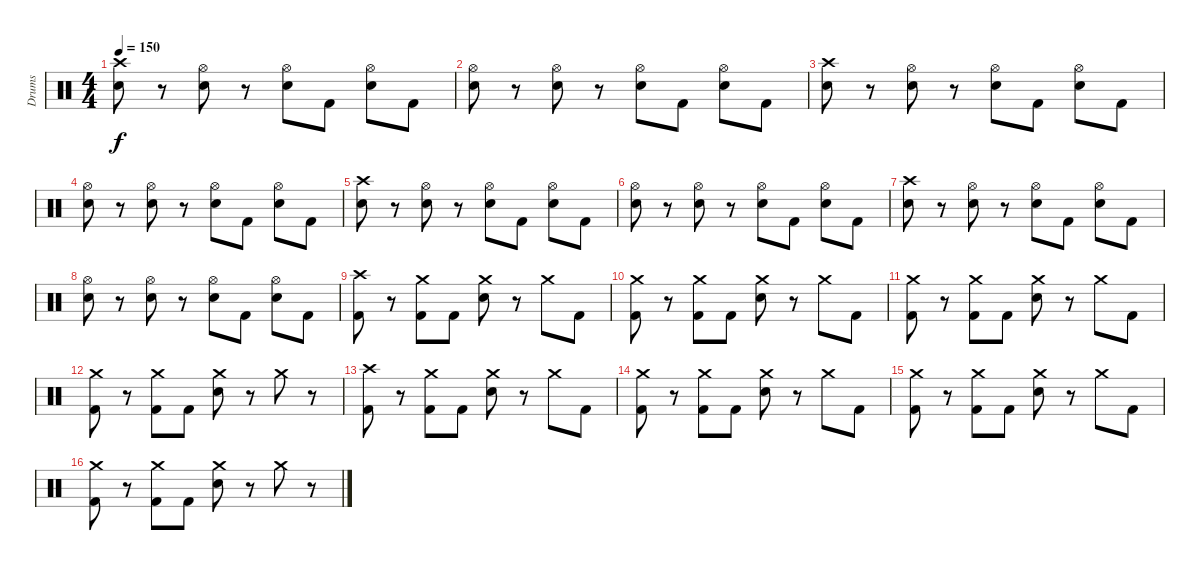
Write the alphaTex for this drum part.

\track ("Drums" "Drums") {instrument percussion}
\staff {score}
\articulation defaults
\ts (4 4)
\tempo 150
\clef neutral
\ks c
("Crash high (hit)" "Snare (hit) 2").8{dy f} r.8 ("Hi-Hat (open)" "Snare (hit) 2").8 r.8 ("Hi-Hat (open)" "Snare (hit) 2").8 "Kick (hit) 2".8 ("Hi-Hat (open)" "Snare (hit) 2").8 "Kick (hit) 2".8 |
("Hi-Hat (open)" "Snare (hit) 2").8 r.8 ("Hi-Hat (open)" "Snare (hit) 2").8 r.8 ("Hi-Hat (open)" "Snare (hit) 2").8 "Kick (hit) 2".8 ("Hi-Hat (open)" "Snare (hit) 2").8 "Kick (hit) 2".8 |
("Crash high (hit)" "Snare (hit) 2").8 r.8 ("Hi-Hat (open)" "Snare (hit) 2").8 r.8 ("Hi-Hat (open)" "Snare (hit) 2").8 "Kick (hit) 2".8 ("Hi-Hat (open)" "Snare (hit) 2").8 "Kick (hit) 2".8 |
("Hi-Hat (open)" "Snare (hit) 2").8 r.8 ("Hi-Hat (open)" "Snare (hit) 2").8 r.8 ("Hi-Hat (open)" "Snare (hit) 2").8 "Kick (hit) 2".8 ("Hi-Hat (open)" "Snare (hit) 2").8 "Kick (hit) 2".8 |
("Crash high (hit)" "Snare (hit) 2").8 r.8 ("Hi-Hat (open)" "Snare (hit) 2").8 r.8 ("Hi-Hat (open)" "Snare (hit) 2").8 "Kick (hit) 2".8 ("Hi-Hat (open)" "Snare (hit) 2").8 "Kick (hit) 2".8 |
("Hi-Hat (open)" "Snare (hit) 2").8 r.8 ("Hi-Hat (open)" "Snare (hit) 2").8 r.8 ("Hi-Hat (open)" "Snare (hit) 2").8 "Kick (hit) 2".8 ("Hi-Hat (open)" "Snare (hit) 2").8 "Kick (hit) 2".8 |
("Crash high (hit)" "Snare (hit) 2").8 r.8 ("Hi-Hat (open)" "Snare (hit) 2").8 r.8 ("Hi-Hat (open)" "Snare (hit) 2").8 "Kick (hit) 2".8 ("Hi-Hat (open)" "Snare (hit) 2").8 "Kick (hit) 2".8 |
("Hi-Hat (open)" "Snare (hit) 2").8 r.8 ("Hi-Hat (open)" "Snare (hit) 2").8 r.8 ("Hi-Hat (open)" "Snare (hit) 2").8 "Kick (hit) 2".8 ("Hi-Hat (open)" "Snare (hit) 2").8 "Kick (hit) 2".8 |
("Crash high (hit)" "Kick (hit) 2").8 r.8 ("Crash medium (hit)" "Kick (hit) 2").8 "Kick (hit) 2".8 ("Crash medium (hit)" "Snare (hit) 2").8 r.8 "Crash medium (hit)".8 "Kick (hit) 2".8 |
("Crash medium (hit)" "Kick (hit) 2").8 r.8 ("Crash medium (hit)" "Kick (hit) 2").8 "Kick (hit) 2".8 ("Crash medium (hit)" "Snare (hit) 2").8 r.8 "Crash medium (hit)".8 "Kick (hit) 2".8 |
("Crash medium (hit)" "Kick (hit) 2").8 r.8 ("Crash medium (hit)" "Kick (hit) 2").8 "Kick (hit) 2".8 ("Crash medium (hit)" "Snare (hit) 2").8 r.8 "Crash medium (hit)".8 "Kick (hit) 2".8 |
("Crash medium (hit)" "Kick (hit) 2").8 r.8 ("Crash medium (hit)" "Kick (hit) 2").8 "Kick (hit) 2".8 ("Crash medium (hit)" "Snare (hit) 2").8 r.8 "Crash medium (hit)".8 r.8 |
("Crash high (hit)" "Kick (hit) 2").8 r.8 ("Crash medium (hit)" "Kick (hit) 2").8 "Kick (hit) 2".8 ("Crash medium (hit)" "Snare (hit) 2").8 r.8 "Crash medium (hit)".8 "Kick (hit) 2".8 |
("Crash medium (hit)" "Kick (hit) 2").8 r.8 ("Crash medium (hit)" "Kick (hit) 2").8 "Kick (hit) 2".8 ("Crash medium (hit)" "Snare (hit) 2").8 r.8 "Crash medium (hit)".8 "Kick (hit) 2".8 |
("Crash medium (hit)" "Kick (hit) 2").8 r.8 ("Crash medium (hit)" "Kick (hit) 2").8 "Kick (hit) 2".8 ("Crash medium (hit)" "Snare (hit) 2").8 r.8 "Crash medium (hit)".8 "Kick (hit) 2".8 |
("Crash medium (hit)" "Kick (hit) 2").8 r.8 ("Crash medium (hit)" "Kick (hit) 2").8 "Kick (hit) 2".8 ("Crash medium (hit)" "Snare (hit) 2").8 r.8 "Crash medium (hit)".8 r.8
